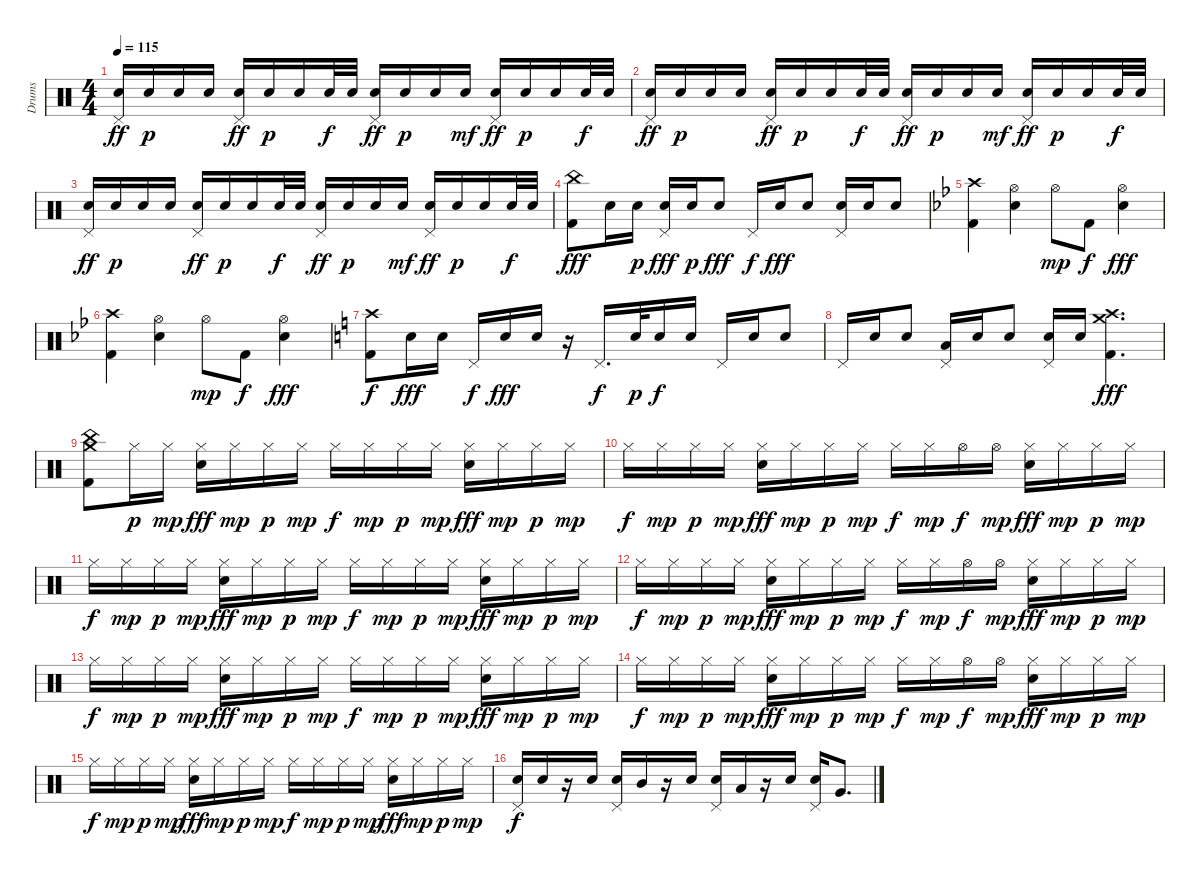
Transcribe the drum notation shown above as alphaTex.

\track ("Drums" "Drums") {instrument percussion}
\staff {score}
\articulation defaults
\ts (4 4)
\tempo 115
\clef neutral
\ks c
("Pedal Hi-Hat (hit)" "Electric Snare (hit)").16{dy ff} "Electric Snare (hit)".16{dy p} "Electric Snare (hit)".16 "Electric Snare (hit)".16 ("Pedal Hi-Hat (hit)" "Electric Snare (hit)").16{dy ff} "Electric Snare (hit)".16{dy p} "Electric Snare (hit)".16 "Electric Snare (hit)".32{dy f} "Electric Snare (hit)".32 ("Pedal Hi-Hat (hit)" "Electric Snare (hit)").16{dy ff} "Electric Snare (hit)".16{dy p} "Electric Snare (hit)".16 "Electric Snare (hit)".16{dy mf} ("Pedal Hi-Hat (hit)" "Electric Snare (hit)").16{dy ff} "Electric Snare (hit)".16{dy p} "Electric Snare (hit)".16 "Electric Snare (hit)".32{dy f} "Electric Snare (hit)".32 |
("Pedal Hi-Hat (hit)" "Electric Snare (hit)").16{dy ff} "Electric Snare (hit)".16{dy p} "Electric Snare (hit)".16 "Electric Snare (hit)".16 ("Pedal Hi-Hat (hit)" "Electric Snare (hit)").16{dy ff} "Electric Snare (hit)".16{dy p} "Electric Snare (hit)".16 "Electric Snare (hit)".32{dy f} "Electric Snare (hit)".32 ("Pedal Hi-Hat (hit)" "Electric Snare (hit)").16{dy ff} "Electric Snare (hit)".16{dy p} "Electric Snare (hit)".16 "Electric Snare (hit)".16{dy mf} ("Pedal Hi-Hat (hit)" "Electric Snare (hit)").16{dy ff} "Electric Snare (hit)".16{dy p} "Electric Snare (hit)".16 "Electric Snare (hit)".32{dy f} "Electric Snare (hit)".32 |
("Pedal Hi-Hat (hit)" "Electric Snare (hit)").16{dy ff} "Electric Snare (hit)".16{dy p} "Electric Snare (hit)".16 "Electric Snare (hit)".16 ("Pedal Hi-Hat (hit)" "Electric Snare (hit)").16{dy ff} "Electric Snare (hit)".16{dy p} "Electric Snare (hit)".16 "Electric Snare (hit)".32{dy f} "Electric Snare (hit)".32 ("Pedal Hi-Hat (hit)" "Electric Snare (hit)").16{dy ff} "Electric Snare (hit)".16{dy p} "Electric Snare (hit)".16 "Electric Snare (hit)".16{dy mf} ("Pedal Hi-Hat (hit)" "Electric Snare (hit)").16{dy ff} "Electric Snare (hit)".16{dy p} "Electric Snare (hit)".16 "Electric Snare (hit)".32{dy f} "Electric Snare (hit)".32 |
("China (hit)" "Kick (hit) 2").8{dy fff} "Electric Snare (hit)".16 "Electric Snare (hit)".16{dy p} ("Pedal Hi-Hat (hit)" "Electric Snare (hit)").16{dy fff} "Electric Snare (hit)".16{dy p} "Electric Snare (hit)".8{dy fff} "Pedal Hi-Hat (hit)".16{dy f} "Electric Snare (hit)".16{dy fff} "Electric Snare (hit)".8 ("Pedal Hi-Hat (hit)" "Electric Snare (hit)").16 "Electric Snare (hit)".16 "Electric Snare (hit)".8 |
\ks bb
("Crash high (hit)" "Kick (hit) 2").4 ("Hi-Hat (open)" "Electric Snare (hit)").4 "Hi-Hat (open)".8{dy mp} "Kick (hit) 2".8{dy f} ("Hi-Hat (open)" "Electric Snare (hit)").4{dy fff} |
("Crash high (hit)" "Kick (hit) 2").4 ("Hi-Hat (open)" "Electric Snare (hit)").4 "Hi-Hat (open)".8{dy mp} "Kick (hit) 2".8{dy f} ("Hi-Hat (open)" "Electric Snare (hit)").4{dy fff} |
\ks c
("Crash high (hit)" "Kick (hit) 2").8{dy f} "Electric Snare (hit)".16{dy fff} "Electric Snare (hit)".16 "Pedal Hi-Hat (hit)".16{dy f} "Electric Snare (hit)".16{dy fff} "Electric Snare (hit)".16 r.16 "Pedal Hi-Hat (hit)".16{d dy f} "Electric Snare (hit)".32{dy p} "Electric Snare (hit)".16{dy f} "Electric Snare (hit)".16 "Pedal Hi-Hat (hit)".16 "Electric Snare (hit)".16 "Electric Snare (hit)".8 |
"Pedal Hi-Hat (hit)".16 "Electric Snare (hit)".16 "Electric Snare (hit)".8 ("Pedal Hi-Hat (hit)" "Low Tom (hit)").16 "Electric Snare (hit)".16 "Electric Snare (hit)".8 ("Pedal Hi-Hat (hit)" "Electric Snare (hit)").16 "Electric Snare (hit)".16 ("Crash high (hit)" "Crash medium (hit)" "Kick (hit) 2").4{d dy fff} |
("Crash medium (hit)" "China (hit)" "Kick (hit) 2").8 "Hi-Hat (closed)".16{dy p} "Hi-Hat (closed)".16{dy mp} ("Hi-Hat (closed)" "Electric Snare (hit)").16{dy fff} "Hi-Hat (closed)".16{dy mp} "Hi-Hat (closed)".16{dy p} "Hi-Hat (closed)".16{dy mp} "Hi-Hat (closed)".16{dy f} "Hi-Hat (closed)".16{dy mp} "Hi-Hat (closed)".16{dy p} "Hi-Hat (closed)".16{dy mp} ("Hi-Hat (closed)" "Electric Snare (hit)").16{dy fff} "Hi-Hat (closed)".16{dy mp} "Hi-Hat (closed)".16{dy p} "Hi-Hat (closed)".16{dy mp} |
"Hi-Hat (closed)".16{dy f} "Hi-Hat (closed)".16{dy mp} "Hi-Hat (closed)".16{dy p} "Hi-Hat (closed)".16{dy mp} ("Hi-Hat (closed)" "Electric Snare (hit)").16{dy fff} "Hi-Hat (closed)".16{dy mp} "Hi-Hat (closed)".16{dy p} "Hi-Hat (closed)".16{dy mp} "Hi-Hat (closed)".16{dy f} "Hi-Hat (closed)".16{dy mp} "Hi-Hat (open)".16{dy f} "Hi-Hat (open)".16{dy mp} ("Hi-Hat (closed)" "Electric Snare (hit)").16{dy fff} "Hi-Hat (closed)".16{dy mp} "Hi-Hat (closed)".16{dy p} "Hi-Hat (closed)".16{dy mp} |
"Hi-Hat (closed)".16{dy f} "Hi-Hat (closed)".16{dy mp} "Hi-Hat (closed)".16{dy p} "Hi-Hat (closed)".16{dy mp} ("Hi-Hat (closed)" "Electric Snare (hit)").16{dy fff} "Hi-Hat (closed)".16{dy mp} "Hi-Hat (closed)".16{dy p} "Hi-Hat (closed)".16{dy mp} "Hi-Hat (closed)".16{dy f} "Hi-Hat (closed)".16{dy mp} "Hi-Hat (closed)".16{dy p} "Hi-Hat (closed)".16{dy mp} ("Hi-Hat (closed)" "Electric Snare (hit)").16{dy fff} "Hi-Hat (closed)".16{dy mp} "Hi-Hat (closed)".16{dy p} "Hi-Hat (closed)".16{dy mp} |
"Hi-Hat (closed)".16{dy f} "Hi-Hat (closed)".16{dy mp} "Hi-Hat (closed)".16{dy p} "Hi-Hat (closed)".16{dy mp} ("Hi-Hat (closed)" "Electric Snare (hit)").16{dy fff} "Hi-Hat (closed)".16{dy mp} "Hi-Hat (closed)".16{dy p} "Hi-Hat (closed)".16{dy mp} "Hi-Hat (closed)".16{dy f} "Hi-Hat (closed)".16{dy mp} "Hi-Hat (open)".16{dy f} "Hi-Hat (open)".16{dy mp} ("Hi-Hat (closed)" "Electric Snare (hit)").16{dy fff} "Hi-Hat (closed)".16{dy mp} "Hi-Hat (closed)".16{dy p} "Hi-Hat (closed)".16{dy mp} |
"Hi-Hat (closed)".16{dy f} "Hi-Hat (closed)".16{dy mp} "Hi-Hat (closed)".16{dy p} "Hi-Hat (closed)".16{dy mp} ("Hi-Hat (closed)" "Electric Snare (hit)").16{dy fff} "Hi-Hat (closed)".16{dy mp} "Hi-Hat (closed)".16{dy p} "Hi-Hat (closed)".16{dy mp} "Hi-Hat (closed)".16{dy f} "Hi-Hat (closed)".16{dy mp} "Hi-Hat (closed)".16{dy p} "Hi-Hat (closed)".16{dy mp} ("Hi-Hat (closed)" "Electric Snare (hit)").16{dy fff} "Hi-Hat (closed)".16{dy mp} "Hi-Hat (closed)".16{dy p} "Hi-Hat (closed)".16{dy mp} |
"Hi-Hat (closed)".16{dy f} "Hi-Hat (closed)".16{dy mp} "Hi-Hat (closed)".16{dy p} "Hi-Hat (closed)".16{dy mp} ("Hi-Hat (closed)" "Electric Snare (hit)").16{dy fff} "Hi-Hat (closed)".16{dy mp} "Hi-Hat (closed)".16{dy p} "Hi-Hat (closed)".16{dy mp} "Hi-Hat (closed)".16{dy f} "Hi-Hat (closed)".16{dy mp} "Hi-Hat (open)".16{dy f} "Hi-Hat (open)".16{dy mp} ("Hi-Hat (closed)" "Electric Snare (hit)").16{dy fff} "Hi-Hat (closed)".16{dy mp} "Hi-Hat (closed)".16{dy p} "Hi-Hat (closed)".16{dy mp} |
"Hi-Hat (closed)".16{dy f} "Hi-Hat (closed)".16{dy mp} "Hi-Hat (closed)".16{dy p} "Hi-Hat (closed)".16{dy mp} ("Hi-Hat (closed)" "Electric Snare (hit)").16{dy fff} "Hi-Hat (closed)".16{dy mp} "Hi-Hat (closed)".16{dy p} "Hi-Hat (closed)".16{dy mp} "Hi-Hat (closed)".16{dy f} "Hi-Hat (closed)".16{dy mp} "Hi-Hat (closed)".16{dy p} "Hi-Hat (closed)".16{dy mp} ("Hi-Hat (closed)" "Electric Snare (hit)").16{dy fff} "Hi-Hat (closed)".16{dy mp} "Hi-Hat (closed)".16{dy p} "Hi-Hat (closed)".16{dy mp} |
("Pedal Hi-Hat (hit)" "Electric Snare (hit)").16{dy f} "Electric Snare (hit)".16 r.16 "Electric Snare (hit)".16 ("Pedal Hi-Hat (hit)" "Electric Snare (hit)").16 "Mid Tom (hit)".16 r.16 "Electric Snare (hit)".16 ("Pedal Hi-Hat (hit)" "Electric Snare (hit)").16 "Low Tom (hit)".16 r.16 "Electric Snare (hit)".16 ("Pedal Hi-Hat (hit)" "Electric Snare (hit)").16 "Very Low Tom (hit)".8{d}
